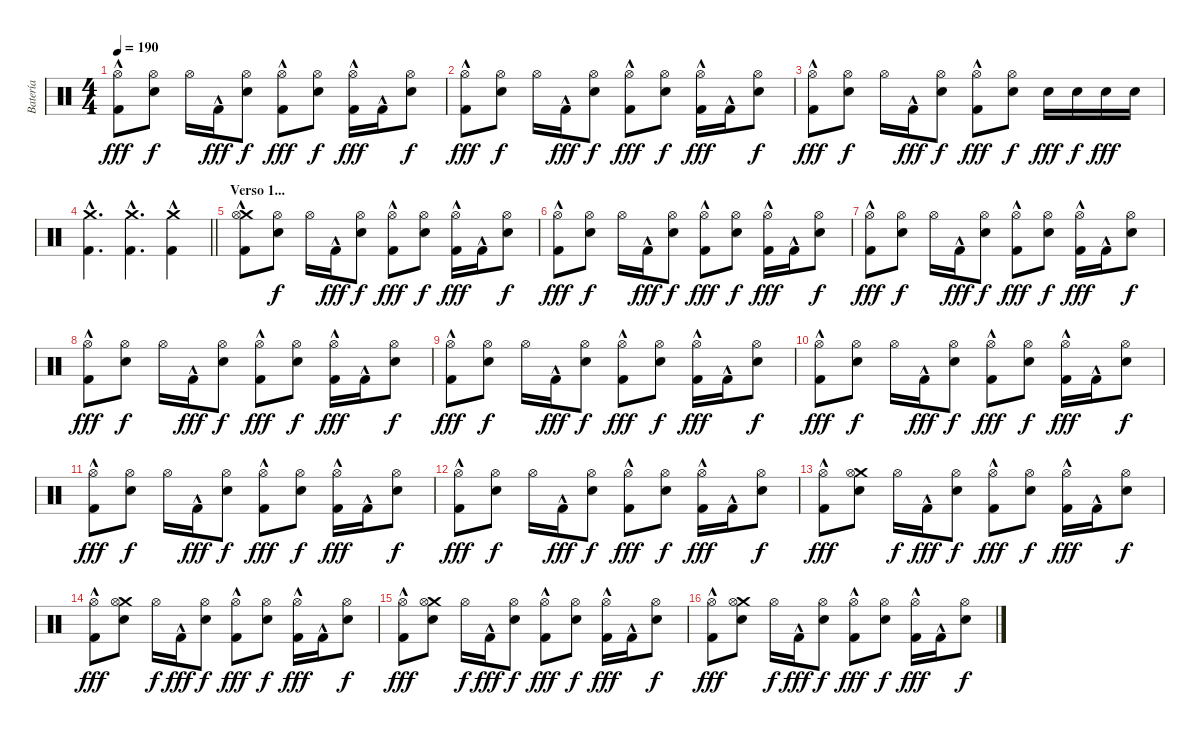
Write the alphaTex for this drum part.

\track ("Batería" "Batería") {instrument percussion}
\staff {score}
\articulation defaults
\ts (4 4)
\tempo 190
\clef neutral
\ks c
("Hi-Hat (open)" "Kick (hit) 2"{hac}).8{dy fff} ("Snare (hit) 2" "Hi-Hat (open)").8{dy f} "Hi-Hat (open)".16 "Kick (hit) 2"{hac}.16{dy fff} ("Snare (hit) 2" "Hi-Hat (open)").8{dy f} ("Hi-Hat (open)" "Kick (hit) 2"{hac}).8{dy fff} ("Snare (hit) 2" "Hi-Hat (open)").8{dy f} ("Hi-Hat (open)" "Kick (hit) 2"{hac}).16{dy fff} "Kick (hit) 2"{hac}.16 ("Snare (hit) 2" "Hi-Hat (open)").8{dy f} |
("Hi-Hat (open)" "Kick (hit) 2"{hac}).8{dy fff} ("Snare (hit) 2" "Hi-Hat (open)").8{dy f} "Hi-Hat (open)".16 "Kick (hit) 2"{hac}.16{dy fff} ("Snare (hit) 2" "Hi-Hat (open)").8{dy f} ("Hi-Hat (open)" "Kick (hit) 2"{hac}).8{dy fff} ("Snare (hit) 2" "Hi-Hat (open)").8{dy f} ("Hi-Hat (open)" "Kick (hit) 2"{hac}).16{dy fff} "Kick (hit) 2"{hac}.16 ("Snare (hit) 2" "Hi-Hat (open)").8{dy f} |
("Hi-Hat (open)" "Kick (hit) 2"{hac}).8{dy fff} ("Snare (hit) 2" "Hi-Hat (open)").8{dy f} "Hi-Hat (open)".16 "Kick (hit) 2"{hac}.16{dy fff} ("Snare (hit) 2" "Hi-Hat (open)").8{dy f} ("Hi-Hat (open)" "Kick (hit) 2"{hac}).8{dy fff} ("Snare (hit) 2" "Hi-Hat (open)").8{dy f} "Snare (hit) 2".16{dy fff} "Snare (hit) 2".16{dy f} "Snare (hit) 2".16{dy fff} "Snare (hit) 2".16 |
\barLineRight lightlight
("Crash medium (hit)" "Kick (hit) 2"{hac}).4{d} ("Crash medium (hit)" "Kick (hit) 2"{hac}).4{d} ("Crash medium (hit)" "Kick (hit) 2"{hac}).4 |
\section ("" "Verso 1...")
("Crash medium (hit)" "Hi-Hat (open)" "Kick (hit) 2"{hac}).8 ("Snare (hit) 2" "Hi-Hat (open)").8{dy f} "Hi-Hat (open)".16 "Kick (hit) 2"{hac}.16{dy fff} ("Snare (hit) 2" "Hi-Hat (open)").8{dy f} ("Hi-Hat (open)" "Kick (hit) 2"{hac}).8{dy fff} ("Snare (hit) 2" "Hi-Hat (open)").8{dy f} ("Hi-Hat (open)" "Kick (hit) 2"{hac}).16{dy fff} "Kick (hit) 2"{hac}.16 ("Snare (hit) 2" "Hi-Hat (open)").8{dy f} |
("Hi-Hat (open)" "Kick (hit) 2"{hac}).8{dy fff} ("Snare (hit) 2" "Hi-Hat (open)").8{dy f} "Hi-Hat (open)".16 "Kick (hit) 2"{hac}.16{dy fff} ("Snare (hit) 2" "Hi-Hat (open)").8{dy f} ("Hi-Hat (open)" "Kick (hit) 2"{hac}).8{dy fff} ("Snare (hit) 2" "Hi-Hat (open)").8{dy f} ("Hi-Hat (open)" "Kick (hit) 2"{hac}).16{dy fff} "Kick (hit) 2"{hac}.16 ("Snare (hit) 2" "Hi-Hat (open)").8{dy f} |
("Hi-Hat (open)" "Kick (hit) 2"{hac}).8{dy fff} ("Snare (hit) 2" "Hi-Hat (open)").8{dy f} "Hi-Hat (open)".16 "Kick (hit) 2"{hac}.16{dy fff} ("Snare (hit) 2" "Hi-Hat (open)").8{dy f} ("Hi-Hat (open)" "Kick (hit) 2"{hac}).8{dy fff} ("Snare (hit) 2" "Hi-Hat (open)").8{dy f} ("Hi-Hat (open)" "Kick (hit) 2"{hac}).16{dy fff} "Kick (hit) 2"{hac}.16 ("Snare (hit) 2" "Hi-Hat (open)").8{dy f} |
("Hi-Hat (open)" "Kick (hit) 2"{hac}).8{dy fff} ("Snare (hit) 2" "Hi-Hat (open)").8{dy f} "Hi-Hat (open)".16 "Kick (hit) 2"{hac}.16{dy fff} ("Snare (hit) 2" "Hi-Hat (open)").8{dy f} ("Hi-Hat (open)" "Kick (hit) 2"{hac}).8{dy fff} ("Snare (hit) 2" "Hi-Hat (open)").8{dy f} ("Hi-Hat (open)" "Kick (hit) 2"{hac}).16{dy fff} "Kick (hit) 2"{hac}.16 ("Snare (hit) 2" "Hi-Hat (open)").8{dy f} |
("Hi-Hat (open)" "Kick (hit) 2"{hac}).8{dy fff} ("Snare (hit) 2" "Hi-Hat (open)").8{dy f} "Hi-Hat (open)".16 "Kick (hit) 2"{hac}.16{dy fff} ("Snare (hit) 2" "Hi-Hat (open)").8{dy f} ("Hi-Hat (open)" "Kick (hit) 2"{hac}).8{dy fff} ("Snare (hit) 2" "Hi-Hat (open)").8{dy f} ("Hi-Hat (open)" "Kick (hit) 2"{hac}).16{dy fff} "Kick (hit) 2"{hac}.16 ("Snare (hit) 2" "Hi-Hat (open)").8{dy f} |
("Hi-Hat (open)" "Kick (hit) 2"{hac}).8{dy fff} ("Snare (hit) 2" "Hi-Hat (open)").8{dy f} "Hi-Hat (open)".16 "Kick (hit) 2"{hac}.16{dy fff} ("Snare (hit) 2" "Hi-Hat (open)").8{dy f} ("Hi-Hat (open)" "Kick (hit) 2"{hac}).8{dy fff} ("Snare (hit) 2" "Hi-Hat (open)").8{dy f} ("Hi-Hat (open)" "Kick (hit) 2"{hac}).16{dy fff} "Kick (hit) 2"{hac}.16 ("Snare (hit) 2" "Hi-Hat (open)").8{dy f} |
("Hi-Hat (open)" "Kick (hit) 2"{hac}).8{dy fff} ("Snare (hit) 2" "Hi-Hat (open)").8{dy f} "Hi-Hat (open)".16 "Kick (hit) 2"{hac}.16{dy fff} ("Snare (hit) 2" "Hi-Hat (open)").8{dy f} ("Hi-Hat (open)" "Kick (hit) 2"{hac}).8{dy fff} ("Snare (hit) 2" "Hi-Hat (open)").8{dy f} ("Hi-Hat (open)" "Kick (hit) 2"{hac}).16{dy fff} "Kick (hit) 2"{hac}.16 ("Snare (hit) 2" "Hi-Hat (open)").8{dy f} |
("Hi-Hat (open)" "Kick (hit) 2"{hac}).8{dy fff} ("Snare (hit) 2" "Hi-Hat (open)").8{dy f} "Hi-Hat (open)".16 "Kick (hit) 2"{hac}.16{dy fff} ("Snare (hit) 2" "Hi-Hat (open)").8{dy f} ("Hi-Hat (open)" "Kick (hit) 2"{hac}).8{dy fff} ("Snare (hit) 2" "Hi-Hat (open)").8{dy f} ("Hi-Hat (open)" "Kick (hit) 2"{hac}).16{dy fff} "Kick (hit) 2"{hac}.16 ("Snare (hit) 2" "Hi-Hat (open)").8{dy f} |
("Hi-Hat (open)" "Kick (hit) 2"{hac}).8{dy fff} ("Crash medium (hit)" "Snare (hit) 2" "Hi-Hat (open)").8 "Hi-Hat (open)".16{dy f} "Kick (hit) 2"{hac}.16{dy fff} ("Snare (hit) 2" "Hi-Hat (open)").8{dy f} ("Hi-Hat (open)" "Kick (hit) 2"{hac}).8{dy fff} ("Snare (hit) 2" "Hi-Hat (open)").8{dy f} ("Hi-Hat (open)" "Kick (hit) 2"{hac}).16{dy fff} "Kick (hit) 2"{hac}.16 ("Snare (hit) 2" "Hi-Hat (open)").8{dy f} |
("Hi-Hat (open)" "Kick (hit) 2"{hac}).8{dy fff} ("Crash medium (hit)" "Snare (hit) 2" "Hi-Hat (open)").8 "Hi-Hat (open)".16{dy f} "Kick (hit) 2"{hac}.16{dy fff} ("Snare (hit) 2" "Hi-Hat (open)").8{dy f} ("Hi-Hat (open)" "Kick (hit) 2"{hac}).8{dy fff} ("Snare (hit) 2" "Hi-Hat (open)").8{dy f} ("Hi-Hat (open)" "Kick (hit) 2"{hac}).16{dy fff} "Kick (hit) 2"{hac}.16 ("Snare (hit) 2" "Hi-Hat (open)").8{dy f} |
("Hi-Hat (open)" "Kick (hit) 2"{hac}).8{dy fff} ("Crash medium (hit)" "Snare (hit) 2" "Hi-Hat (open)").8 "Hi-Hat (open)".16{dy f} "Kick (hit) 2"{hac}.16{dy fff} ("Snare (hit) 2" "Hi-Hat (open)").8{dy f} ("Hi-Hat (open)" "Kick (hit) 2"{hac}).8{dy fff} ("Snare (hit) 2" "Hi-Hat (open)").8{dy f} ("Hi-Hat (open)" "Kick (hit) 2"{hac}).16{dy fff} "Kick (hit) 2"{hac}.16 ("Snare (hit) 2" "Hi-Hat (open)").8{dy f} |
("Hi-Hat (open)" "Kick (hit) 2"{hac}).8{dy fff} ("Crash medium (hit)" "Snare (hit) 2" "Hi-Hat (open)").8 "Hi-Hat (open)".16{dy f} "Kick (hit) 2"{hac}.16{dy fff} ("Snare (hit) 2" "Hi-Hat (open)").8{dy f} ("Hi-Hat (open)" "Kick (hit) 2"{hac}).8{dy fff} ("Snare (hit) 2" "Hi-Hat (open)").8{dy f} ("Hi-Hat (open)" "Kick (hit) 2"{hac}).16{dy fff} "Kick (hit) 2"{hac}.16 ("Snare (hit) 2" "Hi-Hat (open)").8{dy f}
